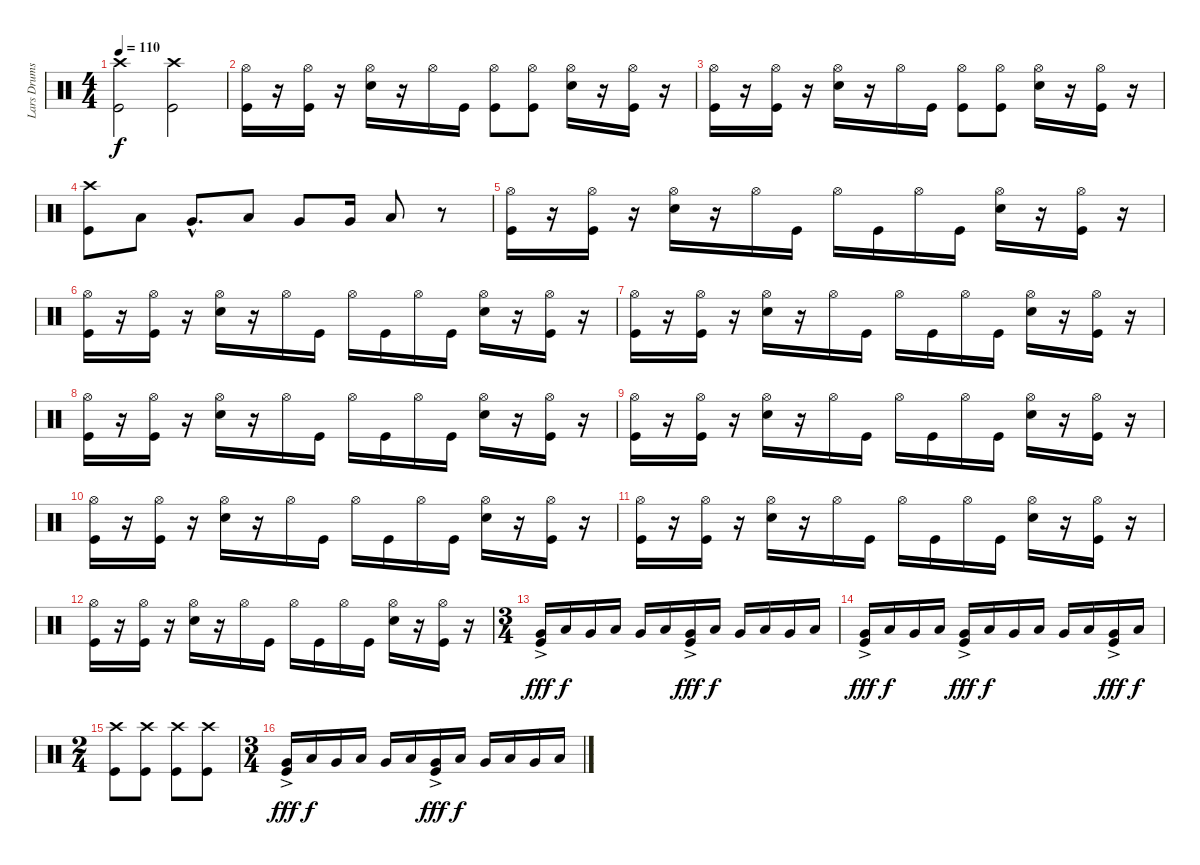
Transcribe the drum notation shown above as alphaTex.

\track ("Lars Drums" "Lars Drums") {instrument percussion}
\staff {score}
\articulation defaults
\ts (4 4)
\tempo 110
\clef neutral
\ks c
("Crash high (hit)" "Kick (hit)").2{dy f} ("Crash high (hit)" "Kick (hit)").2 |
("Hi-Hat (open)" "Kick (hit)").16 r.16 ("Hi-Hat (open)" "Kick (hit)").16 r.16 ("Hi-Hat (open)" "Electric Snare (hit)").16 r.16 "Hi-Hat (open)".16 "Kick (hit)".16 ("Hi-Hat (open)" "Kick (hit)").8 ("Hi-Hat (open)" "Kick (hit)").8 ("Hi-Hat (open)" "Electric Snare (hit)").16 r.16 ("Hi-Hat (open)" "Kick (hit)").16 r.16 |
("Hi-Hat (open)" "Kick (hit)").16 r.16 ("Hi-Hat (open)" "Kick (hit)").16 r.16 ("Hi-Hat (open)" "Electric Snare (hit)").16 r.16 "Hi-Hat (open)".16 "Kick (hit)".16 ("Hi-Hat (open)" "Kick (hit)").8 ("Hi-Hat (open)" "Kick (hit)").8 ("Hi-Hat (open)" "Electric Snare (hit)").16 r.16 ("Hi-Hat (open)" "Kick (hit)").16 r.16 |
("Crash high (hit)" "Kick (hit)").8 "Low Floor Tom (hit)".8 "Very Low Tom (hit)"{hac}.8{d} "Low Floor Tom (hit)".8 "Very Low Tom (hit)".8 "Very Low Tom (hit)".16 "Low Floor Tom (hit)".8 r.8 |
("Hi-Hat (open)" "Kick (hit)").16 r.16 ("Hi-Hat (open)" "Kick (hit)").16 r.16 ("Hi-Hat (open)" "Electric Snare (hit)").16 r.16 "Hi-Hat (open)".16 "Kick (hit)".16 "Hi-Hat (open)".16 "Kick (hit)".16 "Hi-Hat (open)".16 "Kick (hit)".16 ("Hi-Hat (open)" "Electric Snare (hit)").16 r.16 ("Hi-Hat (open)" "Kick (hit)").16 r.16 |
("Hi-Hat (open)" "Kick (hit)").16 r.16 ("Hi-Hat (open)" "Kick (hit)").16 r.16 ("Hi-Hat (open)" "Electric Snare (hit)").16 r.16 "Hi-Hat (open)".16 "Kick (hit)".16 "Hi-Hat (open)".16 "Kick (hit)".16 "Hi-Hat (open)".16 "Kick (hit)".16 ("Hi-Hat (open)" "Electric Snare (hit)").16 r.16 ("Hi-Hat (open)" "Kick (hit)").16 r.16 |
("Hi-Hat (open)" "Kick (hit)").16 r.16 ("Hi-Hat (open)" "Kick (hit)").16 r.16 ("Hi-Hat (open)" "Electric Snare (hit)").16 r.16 "Hi-Hat (open)".16 "Kick (hit)".16 "Hi-Hat (open)".16 "Kick (hit)".16 "Hi-Hat (open)".16 "Kick (hit)".16 ("Hi-Hat (open)" "Electric Snare (hit)").16 r.16 ("Hi-Hat (open)" "Kick (hit)").16 r.16 |
("Hi-Hat (open)" "Kick (hit)").16 r.16 ("Hi-Hat (open)" "Kick (hit)").16 r.16 ("Hi-Hat (open)" "Electric Snare (hit)").16 r.16 "Hi-Hat (open)".16 "Kick (hit)".16 "Hi-Hat (open)".16 "Kick (hit)".16 "Hi-Hat (open)".16 "Kick (hit)".16 ("Hi-Hat (open)" "Electric Snare (hit)").16 r.16 ("Hi-Hat (open)" "Kick (hit)").16 r.16 |
("Hi-Hat (open)" "Kick (hit)").16 r.16 ("Hi-Hat (open)" "Kick (hit)").16 r.16 ("Hi-Hat (open)" "Electric Snare (hit)").16 r.16 "Hi-Hat (open)".16 "Kick (hit)".16 "Hi-Hat (open)".16 "Kick (hit)".16 "Hi-Hat (open)".16 "Kick (hit)".16 ("Hi-Hat (open)" "Electric Snare (hit)").16 r.16 ("Hi-Hat (open)" "Kick (hit)").16 r.16 |
("Hi-Hat (open)" "Kick (hit)").16 r.16 ("Hi-Hat (open)" "Kick (hit)").16 r.16 ("Hi-Hat (open)" "Electric Snare (hit)").16 r.16 "Hi-Hat (open)".16 "Kick (hit)".16 "Hi-Hat (open)".16 "Kick (hit)".16 "Hi-Hat (open)".16 "Kick (hit)".16 ("Hi-Hat (open)" "Electric Snare (hit)").16 r.16 ("Hi-Hat (open)" "Kick (hit)").16 r.16 |
("Hi-Hat (open)" "Kick (hit)").16 r.16 ("Hi-Hat (open)" "Kick (hit)").16 r.16 ("Hi-Hat (open)" "Electric Snare (hit)").16 r.16 "Hi-Hat (open)".16 "Kick (hit)".16 "Hi-Hat (open)".16 "Kick (hit)".16 "Hi-Hat (open)".16 "Kick (hit)".16 ("Hi-Hat (open)" "Electric Snare (hit)").16 r.16 ("Hi-Hat (open)" "Kick (hit)").16 r.16 |
("Hi-Hat (open)" "Kick (hit)").16 r.16 ("Hi-Hat (open)" "Kick (hit)").16 r.16 ("Hi-Hat (open)" "Electric Snare (hit)").16 r.16 "Hi-Hat (open)".16 "Kick (hit)".16 "Hi-Hat (open)".16 "Kick (hit)".16 "Hi-Hat (open)".16 "Kick (hit)".16 ("Hi-Hat (open)" "Electric Snare (hit)").16 r.16 ("Hi-Hat (open)" "Kick (hit)").16 r.16 |
\ts (3 4)
("Kick (hit)"{ac} "Very Low Tom (hit)").16{dy fff} "Low Floor Tom (hit)".16{dy f} "Very Low Tom (hit)".16 "Low Floor Tom (hit)".16 "Very Low Tom (hit)".16 "Low Floor Tom (hit)".16 ("Kick (hit)"{ac} "Very Low Tom (hit)").16{dy fff} "Low Floor Tom (hit)".16{dy f} "Very Low Tom (hit)".16 "Low Floor Tom (hit)".16 "Very Low Tom (hit)".16 "Low Floor Tom (hit)".16 |
("Kick (hit)"{ac} "Very Low Tom (hit)").16{dy fff} "Low Floor Tom (hit)".16{dy f} "Very Low Tom (hit)".16 "Low Floor Tom (hit)".16 ("Kick (hit)"{ac} "Very Low Tom (hit)").16{dy fff} "Low Floor Tom (hit)".16{dy f} "Very Low Tom (hit)".16 "Low Floor Tom (hit)".16 "Very Low Tom (hit)".16 "Low Floor Tom (hit)".16 ("Kick (hit)"{ac} "Very Low Tom (hit)").16{dy fff} "Low Floor Tom (hit)".16{dy f} |
\ts (2 4)
("Crash high (hit)" "Kick (hit)").8 ("Crash high (hit)" "Kick (hit)").8 ("Crash high (hit)" "Kick (hit)").8 ("Crash high (hit)" "Kick (hit)").8 |
\ts (3 4)
("Kick (hit)"{ac} "Very Low Tom (hit)").16{dy fff} "Low Floor Tom (hit)".16{dy f} "Very Low Tom (hit)".16 "Low Floor Tom (hit)".16 "Very Low Tom (hit)".16 "Low Floor Tom (hit)".16 ("Kick (hit)"{ac} "Very Low Tom (hit)").16{dy fff} "Low Floor Tom (hit)".16{dy f} "Very Low Tom (hit)".16 "Low Floor Tom (hit)".16 "Very Low Tom (hit)".16 "Low Floor Tom (hit)".16
